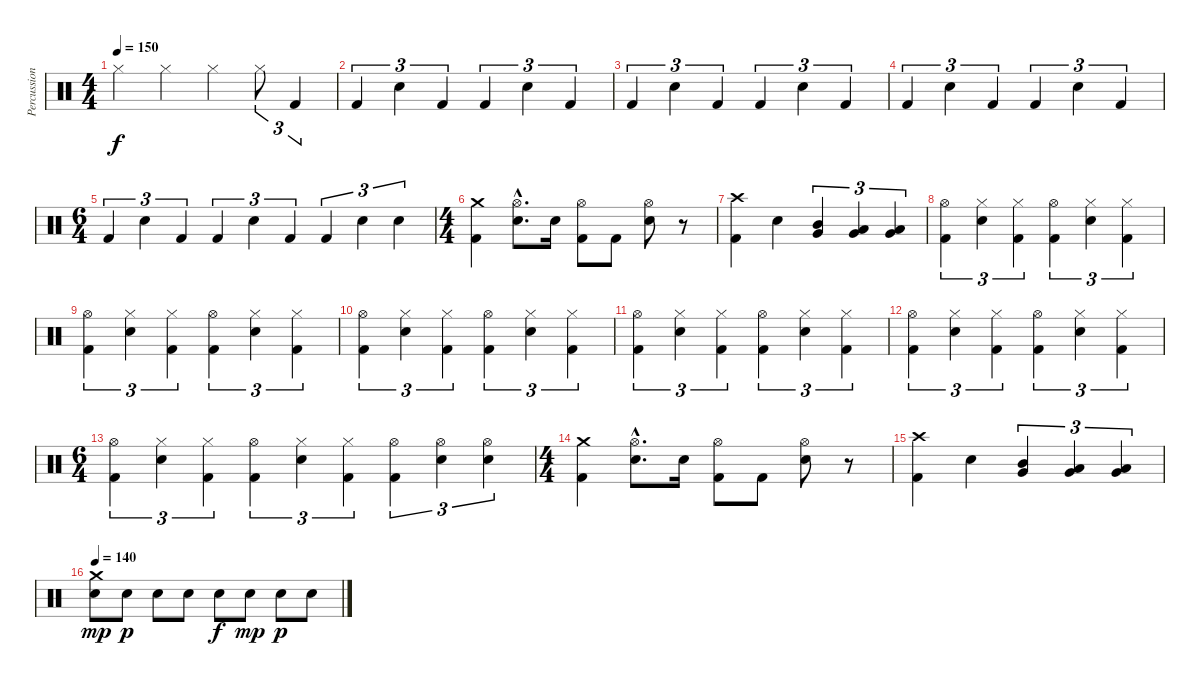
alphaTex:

\track ("Percussion" "Percussion") {instrument percussion}
\staff {score}
\articulation defaults
\ts (4 4)
\tempo 150
\clef neutral
\ks c "Hi-Hat (closed)".4{dy f} "Hi-Hat (closed)".4 "Hi-Hat (closed)".4 "Hi-Hat (closed)".8{tu (3 2)} "Kick (hit) 2".4{tu (3 2)}
|
"Kick (hit) 2".4{tu (3 2)} "Snare (hit) 2".4{tu (3 2)} "Kick (hit) 2".4{tu (3 2)} "Kick (hit) 2".4{tu (3 2)} "Snare (hit) 2".4{tu (3 2)} "Kick (hit) 2".4{tu (3 2)} |
"Kick (hit) 2".4{tu (3 2)} "Snare (hit) 2".4{tu (3 2)} "Kick (hit) 2".4{tu (3 2)} "Kick (hit) 2".4{tu (3 2)} "Snare (hit) 2".4{tu (3 2)} "Kick (hit) 2".4{tu (3 2)} |
"Kick (hit) 2".4{tu (3 2)} "Snare (hit) 2".4{tu (3 2)} "Kick (hit) 2".4{tu (3 2)} "Kick (hit) 2".4{tu (3 2)} "Snare (hit) 2".4{tu (3 2)} "Kick (hit) 2".4{tu (3 2)} |
\ts (6 4)
"Kick (hit) 2".4{tu (3 2)} "Snare (hit) 2".4{tu (3 2)} "Kick (hit) 2".4{tu (3 2)} "Kick (hit) 2".4{tu (3 2)} "Snare (hit) 2".4{tu (3 2)} "Kick (hit) 2".4{tu (3 2)} "Kick (hit) 2".4{tu (3 2)} "Snare (hit) 2".4{tu (3 2)} "Snare (hit) 2".4{tu (3 2)} |
\ts (4 4)
("Crash medium (hit)" "Kick (hit) 2").4 ("Hi-Hat (open)"{hac} "Snare (hit) 2"{hac}).8{d} "Snare (hit) 2".16 ("Hi-Hat (open)" "Kick (hit) 2").8 "Kick (hit) 2".8 ("Hi-Hat (open)" "Snare (hit) 2").8 r.8 |
("Crash high (hit)" "Kick (hit) 2").4 "Snare (hit) 2".4 ("Mid Tom (hit)" "Very Low Tom (hit)").4{tu (3 2)} ("Low Tom (hit)" "Very Low Tom (hit)").4{tu (3 2)} ("Low Tom (hit)" "Very Low Tom (hit)").4{tu (3 2)} |
("Hi-Hat (open)" "Kick (hit) 2").4{tu (3 2)} ("Hi-Hat (closed)" "Snare (hit) 2").4{tu (3 2)} ("Hi-Hat (closed)" "Kick (hit) 2").4{tu (3 2)} ("Hi-Hat (open)" "Kick (hit) 2").4{tu (3 2)} ("Hi-Hat (closed)" "Snare (hit) 2").4{tu (3 2)} ("Hi-Hat (closed)" "Kick (hit) 2").4{tu (3 2)} |
("Hi-Hat (open)" "Kick (hit) 2").4{tu (3 2)} ("Hi-Hat (closed)" "Snare (hit) 2").4{tu (3 2)} ("Hi-Hat (closed)" "Kick (hit) 2").4{tu (3 2)} ("Hi-Hat (open)" "Kick (hit) 2").4{tu (3 2)} ("Hi-Hat (closed)" "Snare (hit) 2").4{tu (3 2)} ("Hi-Hat (closed)" "Kick (hit) 2").4{tu (3 2)} |
("Hi-Hat (open)" "Kick (hit) 2").4{tu (3 2)} ("Hi-Hat (closed)" "Snare (hit) 2").4{tu (3 2)} ("Hi-Hat (closed)" "Kick (hit) 2").4{tu (3 2)} ("Hi-Hat (open)" "Kick (hit) 2").4{tu (3 2)} ("Hi-Hat (closed)" "Snare (hit) 2").4{tu (3 2)} ("Hi-Hat (closed)" "Kick (hit) 2").4{tu (3 2)} |
("Hi-Hat (open)" "Kick (hit) 2").4{tu (3 2)} ("Hi-Hat (closed)" "Snare (hit) 2").4{tu (3 2)} ("Hi-Hat (closed)" "Kick (hit) 2").4{tu (3 2)} ("Hi-Hat (open)" "Kick (hit) 2").4{tu (3 2)} ("Hi-Hat (closed)" "Snare (hit) 2").4{tu (3 2)} ("Hi-Hat (closed)" "Kick (hit) 2").4{tu (3 2)} |
("Hi-Hat (open)" "Kick (hit) 2").4{tu (3 2)} ("Hi-Hat (closed)" "Snare (hit) 2").4{tu (3 2)} ("Hi-Hat (closed)" "Kick (hit) 2").4{tu (3 2)} ("Hi-Hat (open)" "Kick (hit) 2").4{tu (3 2)} ("Hi-Hat (closed)" "Snare (hit) 2").4{tu (3 2)} ("Hi-Hat (closed)" "Kick (hit) 2").4{tu (3 2)} |
\ts (6 4)
("Hi-Hat (open)" "Kick (hit) 2").4{tu (3 2)} ("Hi-Hat (closed)" "Snare (hit) 2").4{tu (3 2)} ("Hi-Hat (closed)" "Kick (hit) 2").4{tu (3 2)} ("Hi-Hat (open)" "Kick (hit) 2").4{tu (3 2)} ("Hi-Hat (closed)" "Snare (hit) 2").4{tu (3 2)} ("Hi-Hat (closed)" "Kick (hit) 2").4{tu (3 2)} ("Hi-Hat (open)" "Kick (hit) 2").4{tu (3 2)} ("Hi-Hat (open)" "Snare (hit) 2").4{tu (3 2)} ("Hi-Hat (open)" "Snare (hit) 2").4{tu (3 2)} |
\ts (4 4)
("Crash medium (hit)" "Kick (hit) 2").4 ("Hi-Hat (open)"{hac} "Snare (hit) 2"{hac}).8{d} "Snare (hit) 2".16 ("Hi-Hat (open)" "Kick (hit) 2").8 "Kick (hit) 2".8 ("Hi-Hat (open)" "Snare (hit) 2").8 r.8 |
("Crash high (hit)" "Kick (hit) 2").4 "Snare (hit) 2".4 ("Mid Tom (hit)" "Very Low Tom (hit)").4{tu (3 2)} ("Low Tom (hit)" "Very Low Tom (hit)").4{tu (3 2)} ("Low Tom (hit)" "Very Low Tom (hit)").4{tu (3 2)} |
\tempo 140
("Crash medium (hit)" "Snare (hit) 2").8{dy mp} "Snare (hit) 2".8{dy p} "Snare (hit) 2".8 "Snare (hit) 2".8 "Snare (hit) 2".8{dy f} "Snare (hit) 2".8{dy mp} "Snare (hit) 2".8{dy p} "Snare (hit) 2".8
